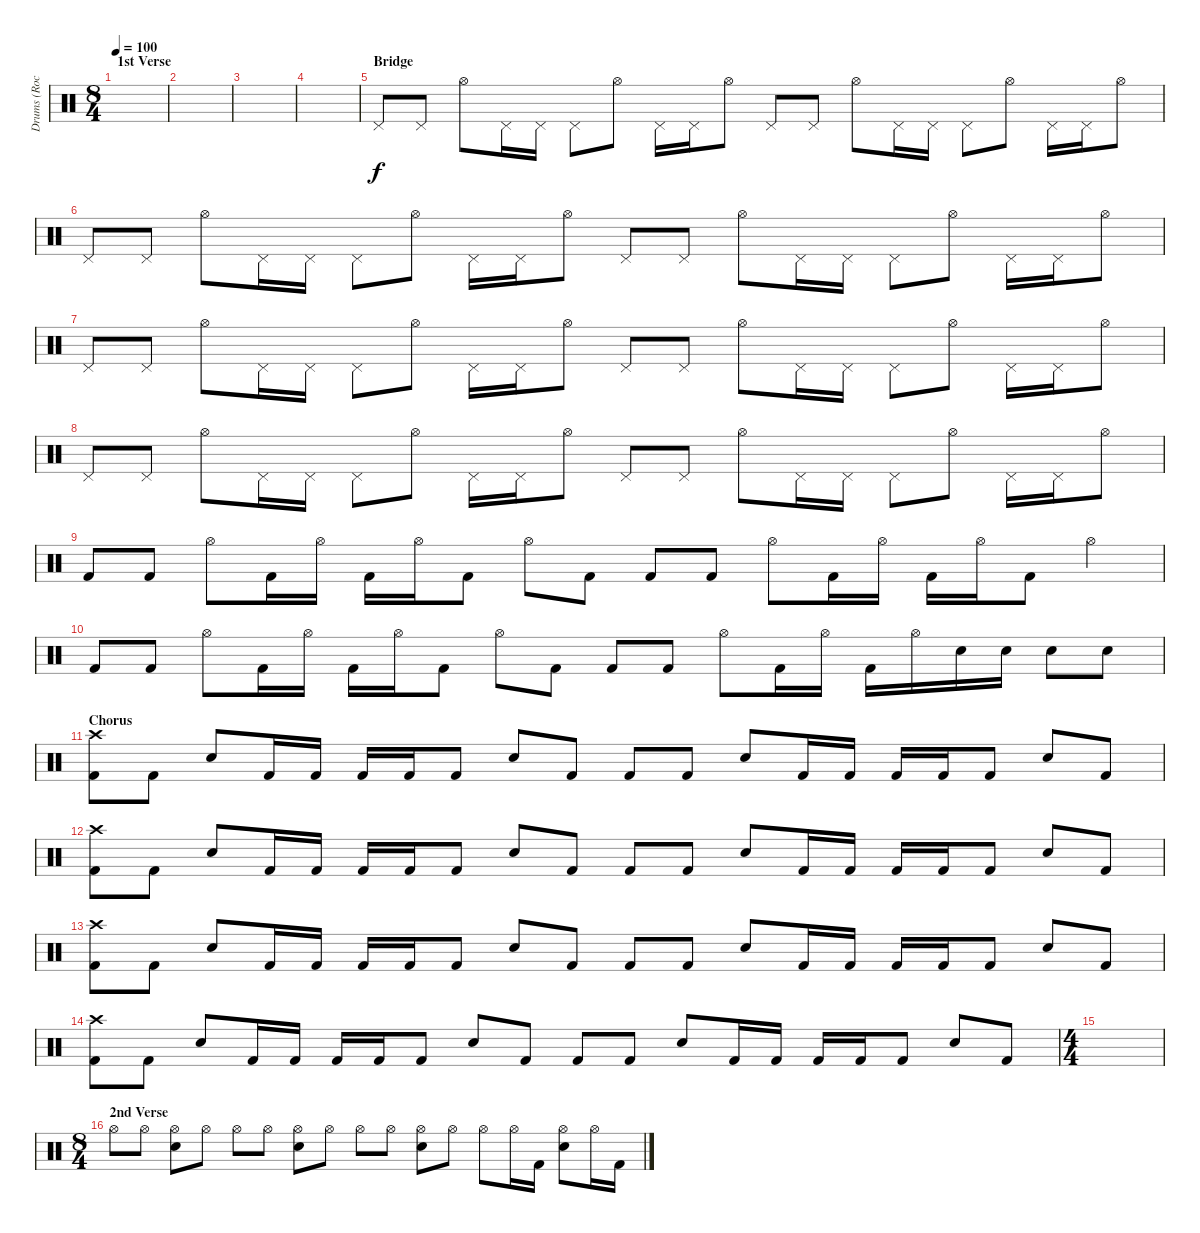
\track ("Drums (Rocky Gray)" "Drums (Roc") {instrument percussion}
\staff {score}
\articulation defaults
\ts (8 4)
\section ("" "1st Verse")
\tempo 100
\clef neutral
\ks c
|
|
|
|
\section ("" "Bridge")
"Pedal Hi-Hat (hit)".8 "Pedal Hi-Hat (hit)".8 "Hi-Hat (open)".8 "Pedal Hi-Hat (hit)".16 "Pedal Hi-Hat (hit)".16 "Pedal Hi-Hat (hit)".8 "Hi-Hat (open)".8 "Pedal Hi-Hat (hit)".16 "Pedal Hi-Hat (hit)".16 "Hi-Hat (open)".8 "Pedal Hi-Hat (hit)".8 "Pedal Hi-Hat (hit)".8 "Hi-Hat (open)".8 "Pedal Hi-Hat (hit)".16 "Pedal Hi-Hat (hit)".16 "Pedal Hi-Hat (hit)".8 "Hi-Hat (open)".8 "Pedal Hi-Hat (hit)".16 "Pedal Hi-Hat (hit)".16 "Hi-Hat (open)".8 |
"Pedal Hi-Hat (hit)".8 "Pedal Hi-Hat (hit)".8 "Hi-Hat (open)".8 "Pedal Hi-Hat (hit)".16 "Pedal Hi-Hat (hit)".16 "Pedal Hi-Hat (hit)".8 "Hi-Hat (open)".8 "Pedal Hi-Hat (hit)".16 "Pedal Hi-Hat (hit)".16 "Hi-Hat (open)".8 "Pedal Hi-Hat (hit)".8 "Pedal Hi-Hat (hit)".8 "Hi-Hat (open)".8 "Pedal Hi-Hat (hit)".16 "Pedal Hi-Hat (hit)".16 "Pedal Hi-Hat (hit)".8 "Hi-Hat (open)".8 "Pedal Hi-Hat (hit)".16 "Pedal Hi-Hat (hit)".16 "Hi-Hat (open)".8 |
"Pedal Hi-Hat (hit)".8 "Pedal Hi-Hat (hit)".8 "Hi-Hat (open)".8 "Pedal Hi-Hat (hit)".16 "Pedal Hi-Hat (hit)".16 "Pedal Hi-Hat (hit)".8 "Hi-Hat (open)".8 "Pedal Hi-Hat (hit)".16 "Pedal Hi-Hat (hit)".16 "Hi-Hat (open)".8 "Pedal Hi-Hat (hit)".8 "Pedal Hi-Hat (hit)".8 "Hi-Hat (open)".8 "Pedal Hi-Hat (hit)".16 "Pedal Hi-Hat (hit)".16 "Pedal Hi-Hat (hit)".8 "Hi-Hat (open)".8 "Pedal Hi-Hat (hit)".16 "Pedal Hi-Hat (hit)".16 "Hi-Hat (open)".8 |
"Pedal Hi-Hat (hit)".8 "Pedal Hi-Hat (hit)".8 "Hi-Hat (open)".8 "Pedal Hi-Hat (hit)".16 "Pedal Hi-Hat (hit)".16 "Pedal Hi-Hat (hit)".8 "Hi-Hat (open)".8 "Pedal Hi-Hat (hit)".16 "Pedal Hi-Hat (hit)".16 "Hi-Hat (open)".8 "Pedal Hi-Hat (hit)".8 "Pedal Hi-Hat (hit)".8 "Hi-Hat (open)".8 "Pedal Hi-Hat (hit)".16 "Pedal Hi-Hat (hit)".16 "Pedal Hi-Hat (hit)".8 "Hi-Hat (open)".8 "Pedal Hi-Hat (hit)".16 "Pedal Hi-Hat (hit)".16 "Hi-Hat (open)".8 |
"Kick (hit) 2".8 "Kick (hit) 2".8 "Hi-Hat (open)".8 "Kick (hit) 2".16 "Hi-Hat (open)".16 "Kick (hit) 2".16 "Hi-Hat (open)".16 "Kick (hit) 2".8 "Hi-Hat (open)".8 "Kick (hit) 2".8 "Kick (hit) 2".8 "Kick (hit) 2".8 "Hi-Hat (open)".8 "Kick (hit) 2".16 "Hi-Hat (open)".16 "Kick (hit) 2".16 "Hi-Hat (open)".16 "Kick (hit) 2".8 "Hi-Hat (open)".4 |
"Kick (hit) 2".8 "Kick (hit) 2".8 "Hi-Hat (open)".8 "Kick (hit) 2".16 "Hi-Hat (open)".16 "Kick (hit) 2".16 "Hi-Hat (open)".16 "Kick (hit) 2".8 "Hi-Hat (open)".8 "Kick (hit) 2".8 "Kick (hit) 2".8 "Kick (hit) 2".8 "Hi-Hat (open)".8 "Kick (hit) 2".16 "Hi-Hat (open)".16 "Kick (hit) 2".16 "Hi-Hat (open)".16 "Electric Snare (hit)".16 "Electric Snare (hit)".16 "Electric Snare (hit)".8 "Electric Snare (hit)".8 |
\section ("" "Chorus")
("Crash high (hit)" "Kick (hit) 2").8 "Kick (hit) 2".8 "Electric Snare (hit)".8 "Kick (hit) 2".16 "Kick (hit) 2".16 "Kick (hit) 2".16 "Kick (hit) 2".16 "Kick (hit) 2".8 "Electric Snare (hit)".8 "Kick (hit) 2".8 "Kick (hit) 2".8 "Kick (hit) 2".8 "Electric Snare (hit)".8 "Kick (hit) 2".16 "Kick (hit) 2".16 "Kick (hit) 2".16 "Kick (hit) 2".16 "Kick (hit) 2".8 "Electric Snare (hit)".8 "Kick (hit) 2".8 |
("Crash high (hit)" "Kick (hit) 2").8 "Kick (hit) 2".8 "Electric Snare (hit)".8 "Kick (hit) 2".16 "Kick (hit) 2".16 "Kick (hit) 2".16 "Kick (hit) 2".16 "Kick (hit) 2".8 "Electric Snare (hit)".8 "Kick (hit) 2".8 "Kick (hit) 2".8 "Kick (hit) 2".8 "Electric Snare (hit)".8 "Kick (hit) 2".16 "Kick (hit) 2".16 "Kick (hit) 2".16 "Kick (hit) 2".16 "Kick (hit) 2".8 "Electric Snare (hit)".8 "Kick (hit) 2".8 |
("Crash high (hit)" "Kick (hit) 2").8 "Kick (hit) 2".8 "Electric Snare (hit)".8 "Kick (hit) 2".16 "Kick (hit) 2".16 "Kick (hit) 2".16 "Kick (hit) 2".16 "Kick (hit) 2".8 "Electric Snare (hit)".8 "Kick (hit) 2".8 "Kick (hit) 2".8 "Kick (hit) 2".8 "Electric Snare (hit)".8 "Kick (hit) 2".16 "Kick (hit) 2".16 "Kick (hit) 2".16 "Kick (hit) 2".16 "Kick (hit) 2".8 "Electric Snare (hit)".8 "Kick (hit) 2".8 |
("Crash high (hit)" "Kick (hit) 2").8 "Kick (hit) 2".8 "Electric Snare (hit)".8 "Kick (hit) 2".16 "Kick (hit) 2".16 "Kick (hit) 2".16 "Kick (hit) 2".16 "Kick (hit) 2".8 "Electric Snare (hit)".8 "Kick (hit) 2".8 "Kick (hit) 2".8 "Kick (hit) 2".8 "Electric Snare (hit)".8 "Kick (hit) 2".16 "Kick (hit) 2".16 "Kick (hit) 2".16 "Kick (hit) 2".16 "Kick (hit) 2".8 "Electric Snare (hit)".8 "Kick (hit) 2".8 |
\ts (4 4)
|
\ts (8 4)
\section ("" "2nd Verse")
"Hi-Hat (open)".8 "Hi-Hat (open)".8 ("Hi-Hat (open)" "Electric Snare (hit)").8 "Hi-Hat (open)".8 "Hi-Hat (open)".8 "Hi-Hat (open)".8 ("Hi-Hat (open)" "Electric Snare (hit)").8 "Hi-Hat (open)".8 "Hi-Hat (open)".8 "Hi-Hat (open)".8 ("Hi-Hat (open)" "Electric Snare (hit)").8 "Hi-Hat (open)".8 "Hi-Hat (open)".8 "Hi-Hat (open)".16 "Kick (hit) 2".16 ("Hi-Hat (open)" "Electric Snare (hit)").8 "Hi-Hat (open)".16 "Kick (hit) 2".16
